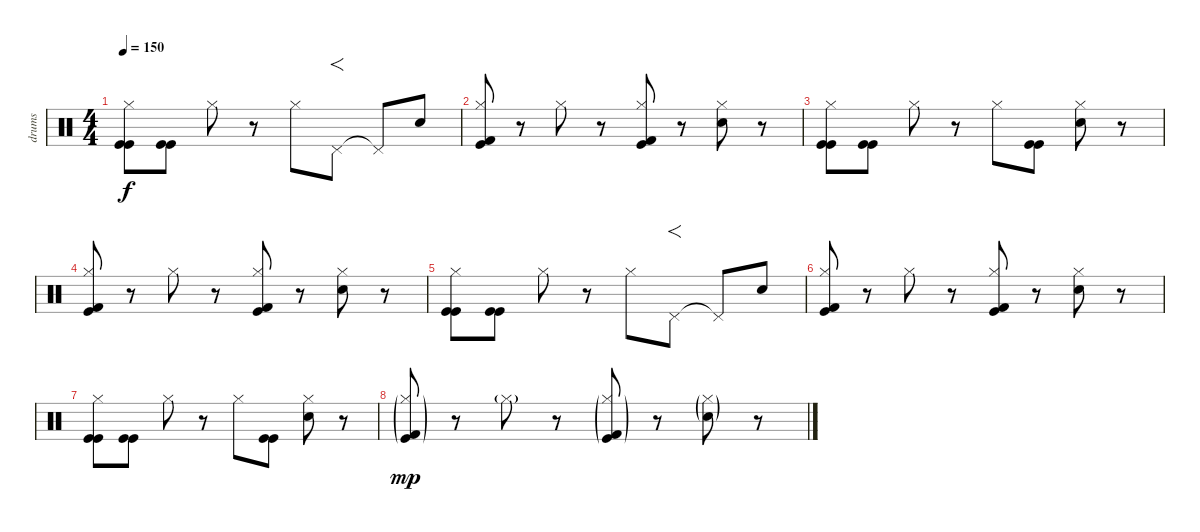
\track ("drums" "drums") {instrument percussion}
\staff {score}
\articulation defaults
\ts (4 4)
\tempo 150
\clef neutral
\ks c
("Kick (hit)" "Kick (hit)" "Hi-Hat (closed)").8{dy f} ("Kick (hit)" "Kick (hit)").8 "Hi-Hat (closed)".8 r.8 "Hi-Hat (closed)".8 "Pedal Hi-Hat (hit)"{tr (44 16)}.8{f} "Pedal Hi-Hat (hit)"{t}.8 "Electric Snare (hit)".8 |
("Kick (hit)" "Kick (hit) 2" "Hi-Hat (closed)").8 r.8 "Hi-Hat (closed)".8 r.8 ("Kick (hit)" "Kick (hit) 2" "Hi-Hat (closed)").8 r.8 ("Electric Snare (hit)" "Hi-Hat (closed)").8 r.8 |
("Kick (hit)" "Kick (hit)" "Hi-Hat (closed)").8 ("Kick (hit)" "Kick (hit)").8 "Hi-Hat (closed)".8 r.8 "Hi-Hat (closed)".8 ("Kick (hit)" "Kick (hit)").8 ("Electric Snare (hit)" "Hi-Hat (closed)").8 r.8 |
("Kick (hit)" "Kick (hit) 2" "Hi-Hat (closed)").8 r.8 "Hi-Hat (closed)".8 r.8 ("Kick (hit)" "Kick (hit) 2" "Hi-Hat (closed)").8 r.8 ("Electric Snare (hit)" "Hi-Hat (closed)").8 r.8 |
("Kick (hit)" "Kick (hit)" "Hi-Hat (closed)").8 ("Kick (hit)" "Kick (hit)").8 "Hi-Hat (closed)".8 r.8 "Hi-Hat (closed)".8 "Pedal Hi-Hat (hit)"{tr (44 16)}.8{f} "Pedal Hi-Hat (hit)"{t}.8 "Electric Snare (hit)".8 |
("Kick (hit)" "Kick (hit) 2" "Hi-Hat (closed)").8 r.8 "Hi-Hat (closed)".8 r.8 ("Kick (hit)" "Kick (hit) 2" "Hi-Hat (closed)").8 r.8 ("Electric Snare (hit)" "Hi-Hat (closed)").8 r.8 |
("Kick (hit)" "Kick (hit)" "Hi-Hat (closed)").8 ("Kick (hit)" "Kick (hit)").8 "Hi-Hat (closed)".8 r.8 "Hi-Hat (closed)".8 ("Kick (hit)" "Kick (hit)").8 ("Electric Snare (hit)" "Hi-Hat (closed)").8 r.8 |
("Kick (hit)"{g} "Kick (hit) 2"{g} "Hi-Hat (closed)"{g}).8{dy mp} r.8 "Hi-Hat (closed)"{g}.8 r.8 ("Kick (hit)"{g} "Kick (hit) 2"{g} "Hi-Hat (closed)"{g}).8 r.8 ("Electric Snare (hit)"{g} "Hi-Hat (closed)"{g}).8 r.8
